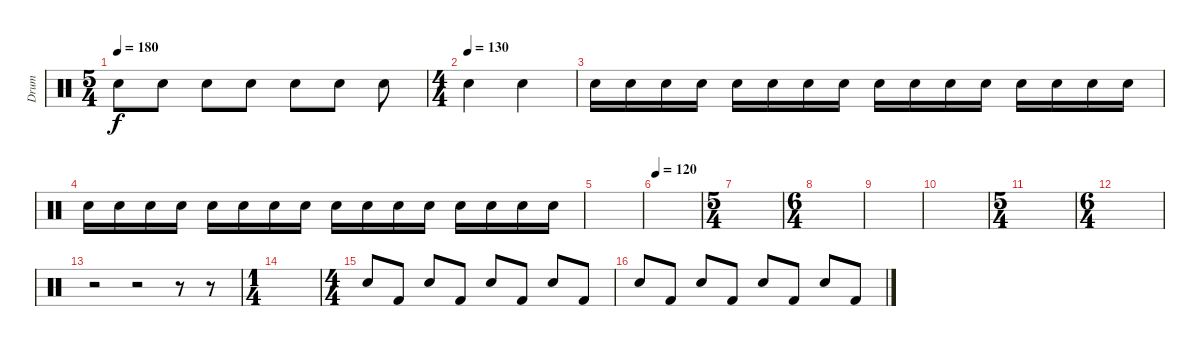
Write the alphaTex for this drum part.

\track ("Drum" "Drum") {instrument percussion}
\staff {score}
\articulation defaults
\ts (5 4)
\tempo 180
\clef neutral
\ks c "Snare (hit) 2".8{dy f} "Snare (hit) 2".8 "Snare (hit) 2".8 "Snare (hit) 2".8 "Snare (hit) 2".8 "Snare (hit) 2".8 "Snare (hit) 2".8
|
\ts (4 4)
\tempo (130)
"Snare (hit) 2".4 "Snare (hit) 2".4 |
"Snare (hit) 2".16 "Snare (hit) 2".16 "Snare (hit) 2".16 "Snare (hit) 2".16 "Snare (hit) 2".16 "Snare (hit) 2".16 "Snare (hit) 2".16 "Snare (hit) 2".16 "Snare (hit) 2".16 "Snare (hit) 2".16 "Snare (hit) 2".16 "Snare (hit) 2".16 "Snare (hit) 2".16 "Snare (hit) 2".16 "Snare (hit) 2".16 "Snare (hit) 2".16 |
"Snare (hit) 2".16 "Snare (hit) 2".16 "Snare (hit) 2".16 "Snare (hit) 2".16 "Snare (hit) 2".16 "Snare (hit) 2".16 "Snare (hit) 2".16 "Snare (hit) 2".16 "Snare (hit) 2".16 "Snare (hit) 2".16 "Snare (hit) 2".16 "Snare (hit) 2".16 "Snare (hit) 2".16 "Snare (hit) 2".16 "Snare (hit) 2".16 "Snare (hit) 2".16 |
|
\tempo 120
|
\ts (5 4)
|
\ts (6 4)
|
|
|
\ts (5 4)
|
\ts (6 4)
|
r.2 r.2 r.8 r.8 |
\ts (1 4)
|
\ts (4 4)
"Snare (hit) 2".8 "Kick (hit) 2".8 "Snare (hit) 2".8 "Kick (hit) 2".8 "Snare (hit) 2".8 "Kick (hit) 2".8 "Snare (hit) 2".8 "Kick (hit) 2".8 |
"Snare (hit) 2".8 "Kick (hit) 2".8 "Snare (hit) 2".8 "Kick (hit) 2".8 "Snare (hit) 2".8 "Kick (hit) 2".8 "Snare (hit) 2".8 "Kick (hit) 2".8
